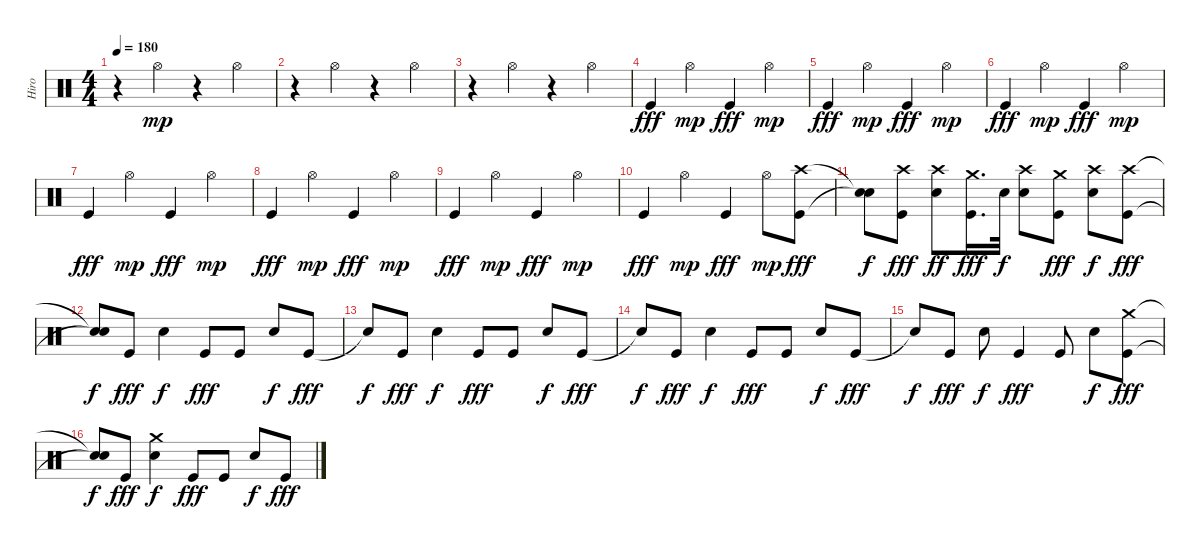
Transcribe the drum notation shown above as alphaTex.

\track ("Hiro" "Hiro") {instrument percussion}
\staff {score}
\articulation defaults
\ts (4 4)
\tempo 180
\clef neutral
\ks c
r.4{dy mp} "Hi-Hat (open)".4 r.4 "Hi-Hat (open)".4 |
r.4 "Hi-Hat (open)".4 r.4 "Hi-Hat (open)".4 |
r.4 "Hi-Hat (open)".4 r.4 "Hi-Hat (open)".4 |
"Kick (hit)".4{dy fff} "Hi-Hat (open)".4{dy mp} "Kick (hit)".4{dy fff} "Hi-Hat (open)".4{dy mp} |
"Kick (hit)".4{dy fff} "Hi-Hat (open)".4{dy mp} "Kick (hit)".4{dy fff} "Hi-Hat (open)".4{dy mp} |
"Kick (hit)".4{dy fff} "Hi-Hat (open)".4{dy mp} "Kick (hit)".4{dy fff} "Hi-Hat (open)".4{dy mp} |
"Kick (hit)".4{dy fff} "Hi-Hat (open)".4{dy mp} "Kick (hit)".4{dy fff} "Hi-Hat (open)".4{dy mp} |
"Kick (hit)".4{dy fff} "Hi-Hat (open)".4{dy mp} "Kick (hit)".4{dy fff} "Hi-Hat (open)".4{dy mp} |
"Kick (hit)".4{dy fff} "Hi-Hat (open)".4{dy mp} "Kick (hit)".4{dy fff} "Hi-Hat (open)".4{dy mp} |
"Kick (hit)".4{dy fff} "Hi-Hat (open)".4{dy mp} "Kick (hit)".4{dy fff} "Hi-Hat (open)".8{dy mp} ("Crash high (hit)" "Kick (hit)").8{dy fff} |
("Snare (hit)"{t} "Snare (hit)"{t}).8{dy f} ("Crash high (hit)" "Kick (hit)").8{dy fff} ("Electric Snare (hit)" "Crash high (hit)").8{dy ff} ("Crash medium (hit)" "Kick (hit)").16{d dy fff} "Electric Snare (hit)".32{dy f} ("Electric Snare (hit)" "Crash high (hit)").8 ("Crash medium (hit)" "Kick (hit)").8{dy fff} ("Electric Snare (hit)" "Crash high (hit)").8{dy f} ("Crash high (hit)" "Kick (hit)").8{dy fff} |
("Snare (hit)"{t} "Snare (hit)"{t}).8{dy f} "Kick (hit)".8{dy fff} "Electric Snare (hit)".4{dy f} "Kick (hit)".8{dy fff} "Kick (hit)".8 "Electric Snare (hit)".8{dy f} "Kick (hit)".8{dy fff} |
"Snare (hit)"{t}.8{dy f} "Kick (hit)".8{dy fff} "Electric Snare (hit)".4{dy f} "Kick (hit)".8{dy fff} "Kick (hit)".8 "Electric Snare (hit)".8{dy f} "Kick (hit)".8{dy fff} |
"Snare (hit)"{t}.8{dy f} "Kick (hit)".8{dy fff} "Electric Snare (hit)".4{dy f} "Kick (hit)".8{dy fff} "Kick (hit)".8 "Electric Snare (hit)".8{dy f} "Kick (hit)".8{dy fff} |
"Snare (hit)"{t}.8{dy f} "Kick (hit)".8{dy fff} "Electric Snare (hit)".8{dy f} "Kick (hit)".4{dy fff} "Kick (hit)".8 "Electric Snare (hit)".8{dy f} ("Crash medium (hit)" "Kick (hit)").8{dy fff} |
("Snare (hit)"{t} "Snare (hit)"{t}).8{dy f} "Kick (hit)".8{dy fff} ("Crash medium (hit)" "Electric Snare (hit)").4{dy f} "Kick (hit)".8{dy fff} "Kick (hit)".8 "Electric Snare (hit)".8{dy f} "Kick (hit)".8{dy fff}
